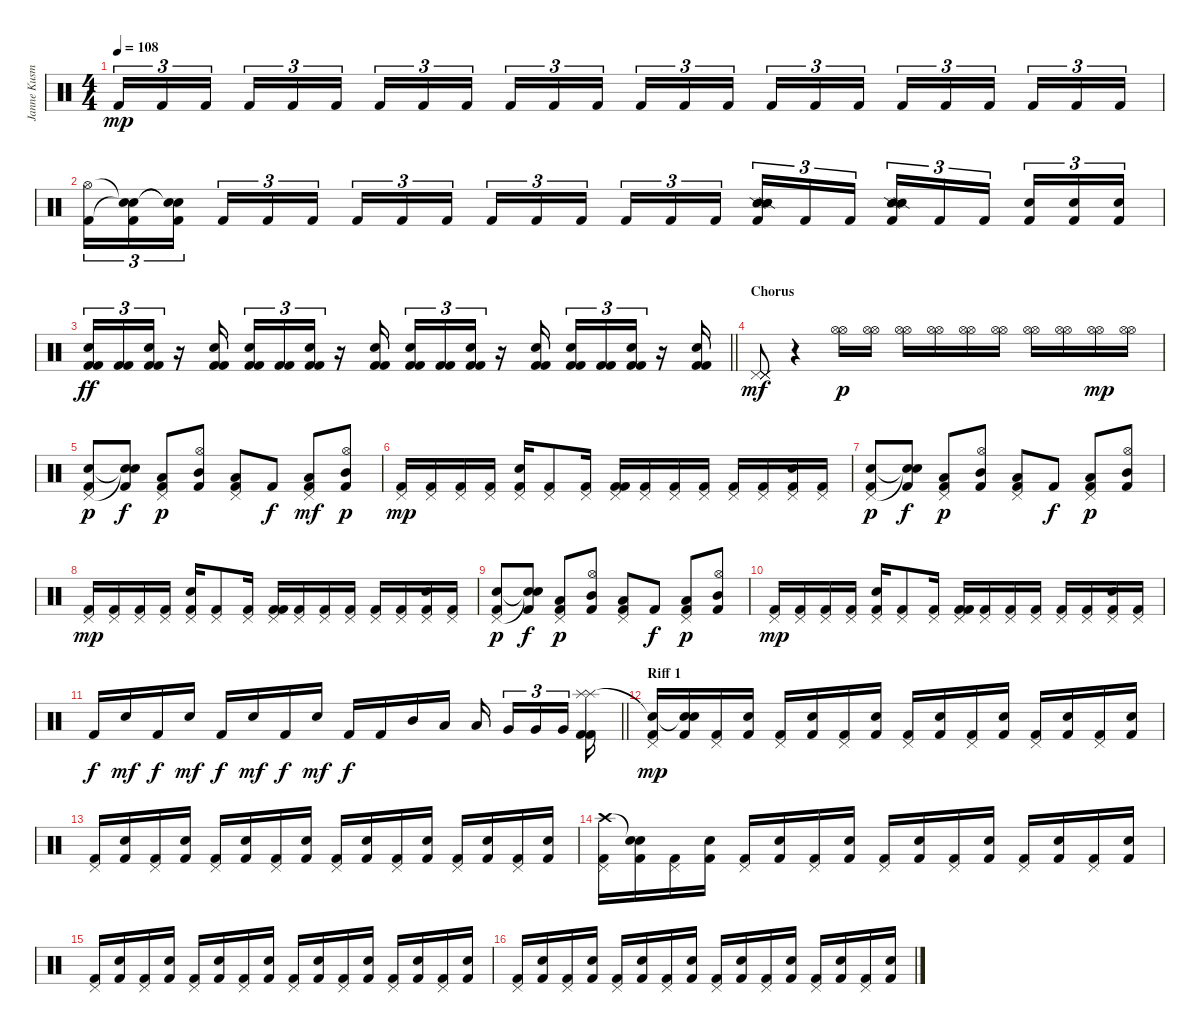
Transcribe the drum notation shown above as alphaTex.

\track ("Janne Kusmin" "Janne Kusm") {instrument percussion}
\staff {score}
\articulation defaults
\ts (4 4)
\tempo 108
\clef neutral
\ks c "Kick (hit) 2".16{tu (3 2) dy mp} "Kick (hit) 2".16{tu (3 2)} "Kick (hit) 2".16{tu (3 2) beam splitsecondary} "Kick (hit) 2".16{tu (3 2)} "Kick (hit) 2".16{tu (3 2)} "Kick (hit) 2".16{tu (3 2)} "Kick (hit) 2".16{tu (3 2)} "Kick (hit) 2".16{tu (3 2)} "Kick (hit) 2".16{tu (3 2) beam splitsecondary} "Kick (hit) 2".16{tu (3 2)} "Kick (hit) 2".16{tu (3 2)} "Kick (hit) 2".16{tu (3 2)} "Kick (hit) 2".16{tu (3 2)} "Kick (hit) 2".16{tu (3 2)} "Kick (hit) 2".16{tu (3 2) beam splitsecondary} "Kick (hit) 2".16{tu (3 2)} "Kick (hit) 2".16{tu (3 2)} "Kick (hit) 2".16{tu (3 2)} "Kick (hit) 2".16{tu (3 2)} "Kick (hit) 2".16{tu (3 2)} "Kick (hit) 2".16{tu (3 2) beam splitsecondary} "Kick (hit) 2".16{tu (3 2)} "Kick (hit) 2".16{tu (3 2)} "Kick (hit) 2".16{tu (3 2)}
|
("Hi-Hat (open)" "Kick (hit) 2").16{tu (3 2)} ("Snare (hit)"{t} "Snare (hit)"{t} "Kick (hit) 2").16{tu (3 2)} ("Snare (hit)"{t} "Snare (hit)"{t} "Kick (hit) 2").16{tu (3 2) beam splitsecondary} "Kick (hit) 2".16{tu (3 2)} "Kick (hit) 2".16{tu (3 2)} "Kick (hit) 2".16{tu (3 2)} "Kick (hit) 2".16{tu (3 2)} "Kick (hit) 2".16{tu (3 2)} "Kick (hit) 2".16{tu (3 2) beam splitsecondary} "Kick (hit) 2".16{tu (3 2)} "Kick (hit) 2".16{tu (3 2)} "Kick (hit) 2".16{tu (3 2)} "Kick (hit) 2".16{tu (3 2)} "Kick (hit) 2".16{tu (3 2)} "Kick (hit) 2".16{tu (3 2) beam splitsecondary} ("Snare (side stick) 2" "Snare (side stick) 2" "Kick (hit) 2").16{tu (3 2)} "Kick (hit) 2".16{tu (3 2)} "Kick (hit) 2".16{tu (3 2)} ("Snare (side stick) 2" "Snare (side stick) 2" "Kick (hit) 2").16{tu (3 2)} "Kick (hit) 2".16{tu (3 2)} "Kick (hit) 2".16{tu (3 2) beam splitsecondary} ("Snare (hit) 2" "Kick (hit) 2").16{tu (3 2)} ("Snare (hit) 2" "Kick (hit) 2").16{tu (3 2)} ("Snare (hit) 2" "Kick (hit) 2").16{tu (3 2)} |
\barLineRight lightlight
("Electric Snare (hit)" "Kick (hit) 2" "Kick (hit) 2").16{tu (3 2) dy ff} ("Kick (hit) 2" "Kick (hit) 2").16{tu (3 2)} ("Electric Snare (hit)" "Kick (hit) 2" "Kick (hit) 2").16{tu (3 2)} r.16 ("Electric Snare (hit)" "Kick (hit) 2" "Kick (hit) 2").16 ("Electric Snare (hit)" "Kick (hit) 2" "Kick (hit) 2").16{tu (3 2)} ("Kick (hit) 2" "Kick (hit) 2").16{tu (3 2)} ("Electric Snare (hit)" "Kick (hit) 2" "Kick (hit) 2").16{tu (3 2)} r.16 ("Electric Snare (hit)" "Kick (hit) 2" "Kick (hit) 2").16 ("Electric Snare (hit)" "Kick (hit) 2" "Kick (hit) 2").16{tu (3 2)} ("Kick (hit) 2" "Kick (hit) 2").16{tu (3 2)} ("Electric Snare (hit)" "Kick (hit) 2" "Kick (hit) 2").16{tu (3 2)} r.16 ("Electric Snare (hit)" "Kick (hit) 2" "Kick (hit) 2").16 ("Electric Snare (hit)" "Kick (hit) 2" "Kick (hit) 2").16{tu (3 2)} ("Kick (hit) 2" "Kick (hit) 2").16{tu (3 2)} ("Electric Snare (hit)" "Kick (hit) 2" "Kick (hit) 2").16{tu (3 2)} r.16 ("Electric Snare (hit)" "Kick (hit) 2" "Kick (hit) 2").16 |
\section ("" "Chorus")
("Pedal Hi-Hat (hit)" "Pedal Hi-Hat (hit)" "Pedal Hi-Hat (hit)" "Pedal Hi-Hat (hit)").8{dy mf} r.4 ("Hi-Hat (open)" "Hi-Hat (open)").16{dy p} ("Hi-Hat (open)" "Hi-Hat (open)").16 ("Hi-Hat (open)" "Hi-Hat (open)").16 ("Hi-Hat (open)" "Hi-Hat (open)").16 ("Hi-Hat (open)" "Hi-Hat (open)").16 ("Hi-Hat (open)" "Hi-Hat (open)").16 ("Hi-Hat (open)" "Hi-Hat (open)").16 ("Hi-Hat (open)" "Hi-Hat (open)").16 ("Hi-Hat (open)" "Hi-Hat (open)").16{dy mp} ("Hi-Hat (open)" "Hi-Hat (open)").16 |
("Pedal Hi-Hat (hit)" "Snare (hit) 2" "Kick (hit) 2").8{dy p} ("Snare (hit)"{t} "Snare (hit)"{t} "Kick (hit) 2").8{dy f} ("Pedal Hi-Hat (hit)" "Low Tom (hit)" "Kick (hit) 2").8{dy p} ("Hi-Hat (open)" "Mid Tom (hit)" "Kick (hit) 2").8 ("Pedal Hi-Hat (hit)" "Low Tom (hit)" "Kick (hit) 2").8 "Kick (hit) 2".8{dy f} ("Pedal Hi-Hat (hit)" "Low Tom (hit)" "Kick (hit) 2").8{dy mf} ("Hi-Hat (open)" "Mid Tom (hit)" "Kick (hit) 2").8{dy p} |
("Pedal Hi-Hat (hit)" "Kick (hit) 2").16{dy mp} ("Pedal Hi-Hat (hit)" "Kick (hit) 2").16 ("Pedal Hi-Hat (hit)" "Kick (hit) 2").16 ("Pedal Hi-Hat (hit)" "Kick (hit) 2").16 ("Pedal Hi-Hat (hit)" "Snare (hit) 2" "Kick (hit) 2").16 ("Pedal Hi-Hat (hit)" "Kick (hit) 2").8 ("Pedal Hi-Hat (hit)" "Kick (hit) 2").16 ("Pedal Hi-Hat (hit)" "Kick (hit) 2" "Kick (hit) 2").16 ("Pedal Hi-Hat (hit)" "Kick (hit) 2").16 ("Pedal Hi-Hat (hit)" "Kick (hit) 2").16 ("Pedal Hi-Hat (hit)" "Kick (hit) 2").16 ("Pedal Hi-Hat (hit)" "Kick (hit) 2").16 ("Pedal Hi-Hat (hit)" "Kick (hit) 2").16 ("Pedal Hi-Hat (hit)" "Snare (hit) 2" "Kick (hit) 2").16 ("Pedal Hi-Hat (hit)" "Kick (hit) 2").16 |
("Pedal Hi-Hat (hit)" "Snare (hit) 2" "Kick (hit) 2").8{dy p} ("Snare (hit)"{t} "Snare (hit)"{t} "Kick (hit) 2").8{dy f} ("Pedal Hi-Hat (hit)" "Low Tom (hit)" "Kick (hit) 2").8{dy p} ("Hi-Hat (open)" "Mid Tom (hit)" "Kick (hit) 2").8 ("Pedal Hi-Hat (hit)" "Low Tom (hit)" "Kick (hit) 2").8 "Kick (hit) 2".8{dy f} ("Pedal Hi-Hat (hit)" "Low Tom (hit)" "Kick (hit) 2").8{dy p} ("Hi-Hat (open)" "Mid Tom (hit)" "Kick (hit) 2").8 |
("Pedal Hi-Hat (hit)" "Kick (hit) 2").16{dy mp} ("Pedal Hi-Hat (hit)" "Kick (hit) 2").16 ("Pedal Hi-Hat (hit)" "Kick (hit) 2").16 ("Pedal Hi-Hat (hit)" "Kick (hit) 2").16 ("Pedal Hi-Hat (hit)" "Snare (hit) 2" "Kick (hit) 2").16 ("Pedal Hi-Hat (hit)" "Kick (hit) 2").8 ("Pedal Hi-Hat (hit)" "Kick (hit) 2").16 ("Pedal Hi-Hat (hit)" "Kick (hit) 2" "Kick (hit) 2").16 ("Pedal Hi-Hat (hit)" "Kick (hit) 2").16 ("Pedal Hi-Hat (hit)" "Kick (hit) 2").16 ("Pedal Hi-Hat (hit)" "Kick (hit) 2").16 ("Pedal Hi-Hat (hit)" "Kick (hit) 2").16 ("Pedal Hi-Hat (hit)" "Kick (hit) 2").16 ("Pedal Hi-Hat (hit)" "Snare (hit) 2" "Kick (hit) 2").16 ("Pedal Hi-Hat (hit)" "Kick (hit) 2").16 |
("Pedal Hi-Hat (hit)" "Snare (hit) 2" "Kick (hit) 2").8{dy p} ("Snare (hit)"{t} "Snare (hit)"{t} "Kick (hit) 2").8{dy f} ("Pedal Hi-Hat (hit)" "Low Tom (hit)" "Kick (hit) 2").8{dy p} ("Hi-Hat (open)" "Mid Tom (hit)" "Kick (hit) 2").8 ("Pedal Hi-Hat (hit)" "Low Tom (hit)" "Kick (hit) 2").8 "Kick (hit) 2".8{dy f} ("Pedal Hi-Hat (hit)" "Low Tom (hit)" "Kick (hit) 2").8{dy p} ("Hi-Hat (open)" "Mid Tom (hit)" "Kick (hit) 2").8 |
("Pedal Hi-Hat (hit)" "Kick (hit) 2").16{dy mp} ("Pedal Hi-Hat (hit)" "Kick (hit) 2").16 ("Pedal Hi-Hat (hit)" "Kick (hit) 2").16 ("Pedal Hi-Hat (hit)" "Kick (hit) 2").16 ("Pedal Hi-Hat (hit)" "Snare (hit) 2" "Kick (hit) 2").16 ("Pedal Hi-Hat (hit)" "Kick (hit) 2").8 ("Pedal Hi-Hat (hit)" "Kick (hit) 2").16 ("Pedal Hi-Hat (hit)" "Kick (hit) 2" "Kick (hit) 2").16 ("Pedal Hi-Hat (hit)" "Kick (hit) 2").16 ("Pedal Hi-Hat (hit)" "Kick (hit) 2").16 ("Pedal Hi-Hat (hit)" "Kick (hit) 2").16 ("Pedal Hi-Hat (hit)" "Kick (hit) 2").16 ("Pedal Hi-Hat (hit)" "Kick (hit) 2").16 ("Pedal Hi-Hat (hit)" "Snare (hit) 2" "Kick (hit) 2").16 ("Pedal Hi-Hat (hit)" "Kick (hit) 2").16 |
\barLineRight lightlight "Kick (hit) 2".16{dy f} "Snare (hit) 2".16{dy mf} "Kick (hit) 2".16{dy f} "Snare (hit) 2".16{dy mf} "Kick (hit) 2".16{dy f} "Snare (hit) 2".16{dy mf} "Kick (hit) 2".16{dy f} "Snare (hit) 2".16{dy mf} "Kick (hit) 2".16{dy f} "Kick (hit) 2".16 "Mid Tom (hit)".16 "Low Tom (hit)".16 "Low Tom (hit)".16{beam splitsecondary} "Very Low Tom (hit)".16{tu (3 2)} "Very Low Tom (hit)".16{tu (3 2)} "Very Low Tom (hit)".16{tu (3 2) beam splitsecondary}
("Splash (hit)" "Splash (hit)" "Kick (hit) 2" "Kick (hit) 2").16 |
\section ("" "Riff 1")
("Snare (hit)"{t} "Pedal Hi-Hat (hit)" "Kick (hit) 2").16{dy mp} ("Snare (hit)"{t} "Snare (hit) 2" "Kick (hit) 2").16 ("Pedal Hi-Hat (hit)" "Kick (hit) 2").16 ("Snare (hit) 2" "Kick (hit) 2").16 ("Pedal Hi-Hat (hit)" "Kick (hit) 2").16 ("Snare (hit) 2" "Kick (hit) 2").16 ("Pedal Hi-Hat (hit)" "Kick (hit) 2").16 ("Snare (hit) 2" "Kick (hit) 2").16 ("Pedal Hi-Hat (hit)" "Kick (hit) 2").16 ("Snare (hit) 2" "Kick (hit) 2").16 ("Pedal Hi-Hat (hit)" "Kick (hit) 2").16 ("Snare (hit) 2" "Kick (hit) 2").16 ("Pedal Hi-Hat (hit)" "Kick (hit) 2").16 ("Snare (hit) 2" "Kick (hit) 2").16 ("Pedal Hi-Hat (hit)" "Kick (hit) 2").16 ("Snare (hit) 2" "Kick (hit) 2").16 |
("Pedal Hi-Hat (hit)" "Kick (hit) 2").16 ("Snare (hit) 2" "Kick (hit) 2").16 ("Pedal Hi-Hat (hit)" "Kick (hit) 2").16 ("Snare (hit) 2" "Kick (hit) 2").16 ("Pedal Hi-Hat (hit)" "Kick (hit) 2").16 ("Snare (hit) 2" "Kick (hit) 2").16 ("Pedal Hi-Hat (hit)" "Kick (hit) 2").16 ("Snare (hit) 2" "Kick (hit) 2").16 ("Pedal Hi-Hat (hit)" "Kick (hit) 2").16 ("Snare (hit) 2" "Kick (hit) 2").16 ("Pedal Hi-Hat (hit)" "Kick (hit) 2").16 ("Snare (hit) 2" "Kick (hit) 2").16 ("Pedal Hi-Hat (hit)" "Kick (hit) 2").16 ("Snare (hit) 2" "Kick (hit) 2").16 ("Pedal Hi-Hat (hit)" "Kick (hit) 2").16 ("Snare (hit) 2" "Kick (hit) 2").16 |
("Crash high (hit)" "Pedal Hi-Hat (hit)" "Kick (hit) 2").16 ("Snare (hit)"{t} "Snare (hit) 2" "Kick (hit) 2").16 ("Pedal Hi-Hat (hit)" "Kick (hit) 2").16 ("Snare (hit) 2" "Kick (hit) 2").16 ("Pedal Hi-Hat (hit)" "Kick (hit) 2").16 ("Snare (hit) 2" "Kick (hit) 2").16 ("Pedal Hi-Hat (hit)" "Kick (hit) 2").16 ("Snare (hit) 2" "Kick (hit) 2").16 ("Pedal Hi-Hat (hit)" "Kick (hit) 2").16 ("Snare (hit) 2" "Kick (hit) 2").16 ("Pedal Hi-Hat (hit)" "Kick (hit) 2").16 ("Snare (hit) 2" "Kick (hit) 2").16 ("Pedal Hi-Hat (hit)" "Kick (hit) 2").16 ("Snare (hit) 2" "Kick (hit) 2").16 ("Pedal Hi-Hat (hit)" "Kick (hit) 2").16 ("Snare (hit) 2" "Kick (hit) 2").16 |
("Pedal Hi-Hat (hit)" "Kick (hit) 2").16 ("Snare (hit) 2" "Kick (hit) 2").16 ("Pedal Hi-Hat (hit)" "Kick (hit) 2").16 ("Snare (hit) 2" "Kick (hit) 2").16 ("Pedal Hi-Hat (hit)" "Kick (hit) 2").16 ("Snare (hit) 2" "Kick (hit) 2").16 ("Pedal Hi-Hat (hit)" "Kick (hit) 2").16 ("Snare (hit) 2" "Kick (hit) 2").16 ("Pedal Hi-Hat (hit)" "Kick (hit) 2").16 ("Snare (hit) 2" "Kick (hit) 2").16 ("Pedal Hi-Hat (hit)" "Kick (hit) 2").16 ("Snare (hit) 2" "Kick (hit) 2").16 ("Pedal Hi-Hat (hit)" "Kick (hit) 2").16 ("Snare (hit) 2" "Kick (hit) 2").16 ("Pedal Hi-Hat (hit)" "Kick (hit) 2").16 ("Snare (hit) 2" "Kick (hit) 2").16 |
("Pedal Hi-Hat (hit)" "Kick (hit) 2").16 ("Snare (hit) 2" "Kick (hit) 2").16 ("Pedal Hi-Hat (hit)" "Kick (hit) 2").16 ("Snare (hit) 2" "Kick (hit) 2").16 ("Pedal Hi-Hat (hit)" "Kick (hit) 2").16 ("Snare (hit) 2" "Kick (hit) 2").16 ("Pedal Hi-Hat (hit)" "Kick (hit) 2").16 ("Snare (hit) 2" "Kick (hit) 2").16 ("Pedal Hi-Hat (hit)" "Kick (hit) 2").16 ("Snare (hit) 2" "Kick (hit) 2").16 ("Pedal Hi-Hat (hit)" "Kick (hit) 2").16 ("Snare (hit) 2" "Kick (hit) 2").16 ("Pedal Hi-Hat (hit)" "Kick (hit) 2").16 ("Snare (hit) 2" "Kick (hit) 2").16 ("Pedal Hi-Hat (hit)" "Kick (hit) 2").16 ("Snare (hit) 2" "Kick (hit) 2").16
